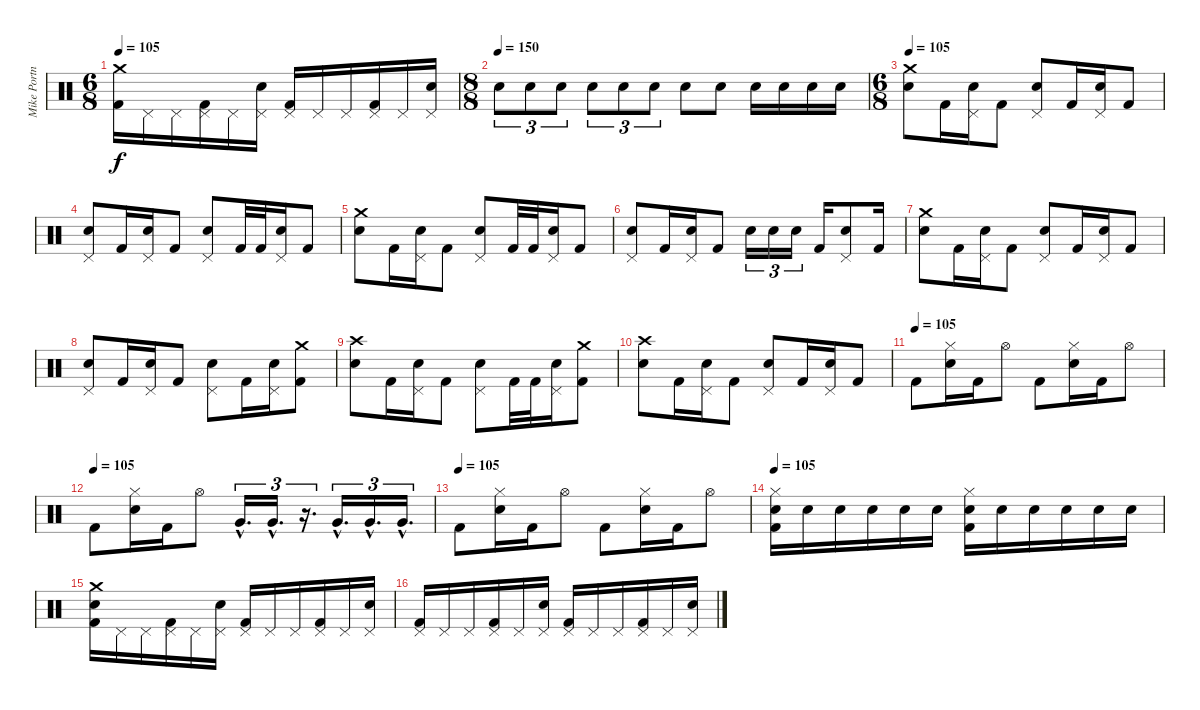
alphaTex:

\track ("Mike Portnoy" "Mike Portn") {instrument percussion}
\staff {score}
\articulation defaults
\ts (6 8)
\tempo 105
\clef neutral
\ks c
("Crash medium (hit)" "Kick (hit) 2").16{dy f} "Pedal Hi-Hat (hit)".16 "Pedal Hi-Hat (hit)".16 ("Pedal Hi-Hat (hit)" "Kick (hit) 2").16 "Pedal Hi-Hat (hit)".16 ("Pedal Hi-Hat (hit)" "Electric Snare (hit)").16 ("Pedal Hi-Hat (hit)" "Kick (hit) 2").16 "Pedal Hi-Hat (hit)".16 "Pedal Hi-Hat (hit)".16 ("Pedal Hi-Hat (hit)" "Kick (hit) 2").16 "Pedal Hi-Hat (hit)".16 ("Pedal Hi-Hat (hit)" "Electric Snare (hit)").16 |
\ts (8 8)
\tempo (150)
"Electric Snare (hit)".8{tu (3 2)} "Electric Snare (hit)".8{tu (3 2)} "Electric Snare (hit)".8{tu (3 2)} "Electric Snare (hit)".8{tu (3 2)} "Electric Snare (hit)".8{tu (3 2)} "Electric Snare (hit)".8{tu (3 2)} "Electric Snare (hit)".8 "Electric Snare (hit)".8 "Electric Snare (hit)".16 "Electric Snare (hit)".16 "Electric Snare (hit)".16 "Electric Snare (hit)".16 |
\ts (6 8)
\tempo 105
("Crash medium (hit)" "Electric Snare (hit)").8 "Kick (hit) 2".16 ("Pedal Hi-Hat (hit)" "Electric Snare (hit)").16 "Kick (hit) 2".8 ("Pedal Hi-Hat (hit)" "Electric Snare (hit)").8 "Kick (hit) 2".16 ("Pedal Hi-Hat (hit)" "Electric Snare (hit)").16 "Kick (hit) 2".8 |
("Pedal Hi-Hat (hit)" "Electric Snare (hit)").8 "Kick (hit) 2".16 ("Pedal Hi-Hat (hit)" "Electric Snare (hit)").16 "Kick (hit) 2".8 ("Pedal Hi-Hat (hit)" "Electric Snare (hit)").8 "Kick (hit) 2".32 "Kick (hit) 2".32 ("Pedal Hi-Hat (hit)" "Electric Snare (hit)").16 "Kick (hit) 2".8 |
("Crash medium (hit)" "Electric Snare (hit)").8 "Kick (hit) 2".16 ("Pedal Hi-Hat (hit)" "Electric Snare (hit)").16 "Kick (hit) 2".8 ("Pedal Hi-Hat (hit)" "Electric Snare (hit)").8 "Kick (hit) 2".32 "Kick (hit) 2".32 ("Pedal Hi-Hat (hit)" "Electric Snare (hit)").16 "Kick (hit) 2".8 |
("Pedal Hi-Hat (hit)" "Electric Snare (hit)").8 "Kick (hit) 2".16 ("Pedal Hi-Hat (hit)" "Electric Snare (hit)").16 "Kick (hit) 2".8 "Electric Snare (hit)".16{tu (3 2)} "Electric Snare (hit)".16{tu (3 2)} "Electric Snare (hit)".16{tu (3 2)} "Kick (hit) 2".16 ("Pedal Hi-Hat (hit)" "Electric Snare (hit)").8 "Kick (hit) 2".16 |
("Crash medium (hit)" "Electric Snare (hit)").8 "Kick (hit) 2".16 ("Pedal Hi-Hat (hit)" "Electric Snare (hit)").16 "Kick (hit) 2".8 ("Pedal Hi-Hat (hit)" "Electric Snare (hit)").8 "Kick (hit) 2".16 ("Pedal Hi-Hat (hit)" "Electric Snare (hit)").16 "Kick (hit) 2".8 |
("Pedal Hi-Hat (hit)" "Electric Snare (hit)").8 "Kick (hit) 2".16 ("Pedal Hi-Hat (hit)" "Electric Snare (hit)").16 "Kick (hit) 2".8 ("Pedal Hi-Hat (hit)" "Electric Snare (hit)").8 "Kick (hit) 2".16 ("Pedal Hi-Hat (hit)" "Electric Snare (hit)").16 ("Crash medium (hit)" "Kick (hit) 2").8 |
("Crash high (hit)" "Electric Snare (hit)").8 "Kick (hit) 2".16 ("Pedal Hi-Hat (hit)" "Electric Snare (hit)").16 "Kick (hit) 2".8 ("Pedal Hi-Hat (hit)" "Electric Snare (hit)").8 "Kick (hit) 2".32 "Kick (hit) 2".32 ("Pedal Hi-Hat (hit)" "Electric Snare (hit)").16 ("Crash medium (hit)" "Kick (hit) 2").8 |
("Crash high (hit)" "Electric Snare (hit)").8 "Kick (hit) 2".16 ("Pedal Hi-Hat (hit)" "Electric Snare (hit)").16 "Kick (hit) 2".8 ("Pedal Hi-Hat (hit)" "Electric Snare (hit)").8 "Kick (hit) 2".16 ("Pedal Hi-Hat (hit)" "Electric Snare (hit)").16 "Kick (hit) 2".8 |
\tempo (105)
"Kick (hit) 2".8 ("Hi-Hat (closed)" "Electric Snare (hit)").16 "Kick (hit) 2".16 "Hi-Hat (open)".8 "Kick (hit) 2".8 ("Hi-Hat (closed)" "Electric Snare (hit)").16 "Kick (hit) 2".16 "Hi-Hat (open)".8 |
\tempo (105)
"Kick (hit) 2".8 ("Hi-Hat (closed)" "Electric Snare (hit)").16 "Kick (hit) 2".16 "Hi-Hat (open)".8 "Very Low Tom (hit)"{hac}.16{d tu (3 2)} "Very Low Tom (hit)"{hac}.16{d tu (3 2)} r.16{d tu (3 2)} "Very Low Tom (hit)"{hac}.16{d tu (3 2)} "Very Low Tom (hit)"{hac}.16{d tu (3 2)} "Very Low Tom (hit)"{hac}.16{d tu (3 2)} |
\tempo (105)
"Kick (hit) 2".8 ("Hi-Hat (closed)" "Electric Snare (hit)").16 "Kick (hit) 2".16 "Hi-Hat (open)".8 "Kick (hit) 2".8 ("Hi-Hat (closed)" "Electric Snare (hit)").16 "Kick (hit) 2".16 "Hi-Hat (open)".8 |
\tempo 105
("Hi-Hat (closed)" "Electric Snare (hit)" "Kick (hit) 2").16 "Electric Snare (hit)".16 "Electric Snare (hit)".16 "Electric Snare (hit)".16 "Electric Snare (hit)".16 "Electric Snare (hit)".16 ("Hi-Hat (closed)" "Electric Snare (hit)" "Kick (hit) 2").16 "Electric Snare (hit)".16 "Electric Snare (hit)".16 "Electric Snare (hit)".16 "Electric Snare (hit)".16 "Electric Snare (hit)".16 |
("Crash medium (hit)" "Electric Snare (hit)" "Kick (hit) 2").16 "Pedal Hi-Hat (hit)".16 "Pedal Hi-Hat (hit)".16 ("Pedal Hi-Hat (hit)" "Kick (hit) 2").16 "Pedal Hi-Hat (hit)".16 ("Pedal Hi-Hat (hit)" "Electric Snare (hit)").16 ("Pedal Hi-Hat (hit)" "Kick (hit) 2").16 "Pedal Hi-Hat (hit)".16 "Pedal Hi-Hat (hit)".16 ("Pedal Hi-Hat (hit)" "Kick (hit) 2").16 "Pedal Hi-Hat (hit)".16 ("Pedal Hi-Hat (hit)" "Electric Snare (hit)").16 |
("Pedal Hi-Hat (hit)" "Kick (hit) 2").16 "Pedal Hi-Hat (hit)".16 "Pedal Hi-Hat (hit)".16 ("Pedal Hi-Hat (hit)" "Kick (hit) 2").16 "Pedal Hi-Hat (hit)".16 ("Pedal Hi-Hat (hit)" "Electric Snare (hit)").16 ("Pedal Hi-Hat (hit)" "Kick (hit) 2").16 "Pedal Hi-Hat (hit)".16 "Pedal Hi-Hat (hit)".16 ("Pedal Hi-Hat (hit)" "Kick (hit) 2").16 "Pedal Hi-Hat (hit)".16 ("Pedal Hi-Hat (hit)" "Electric Snare (hit)").16
